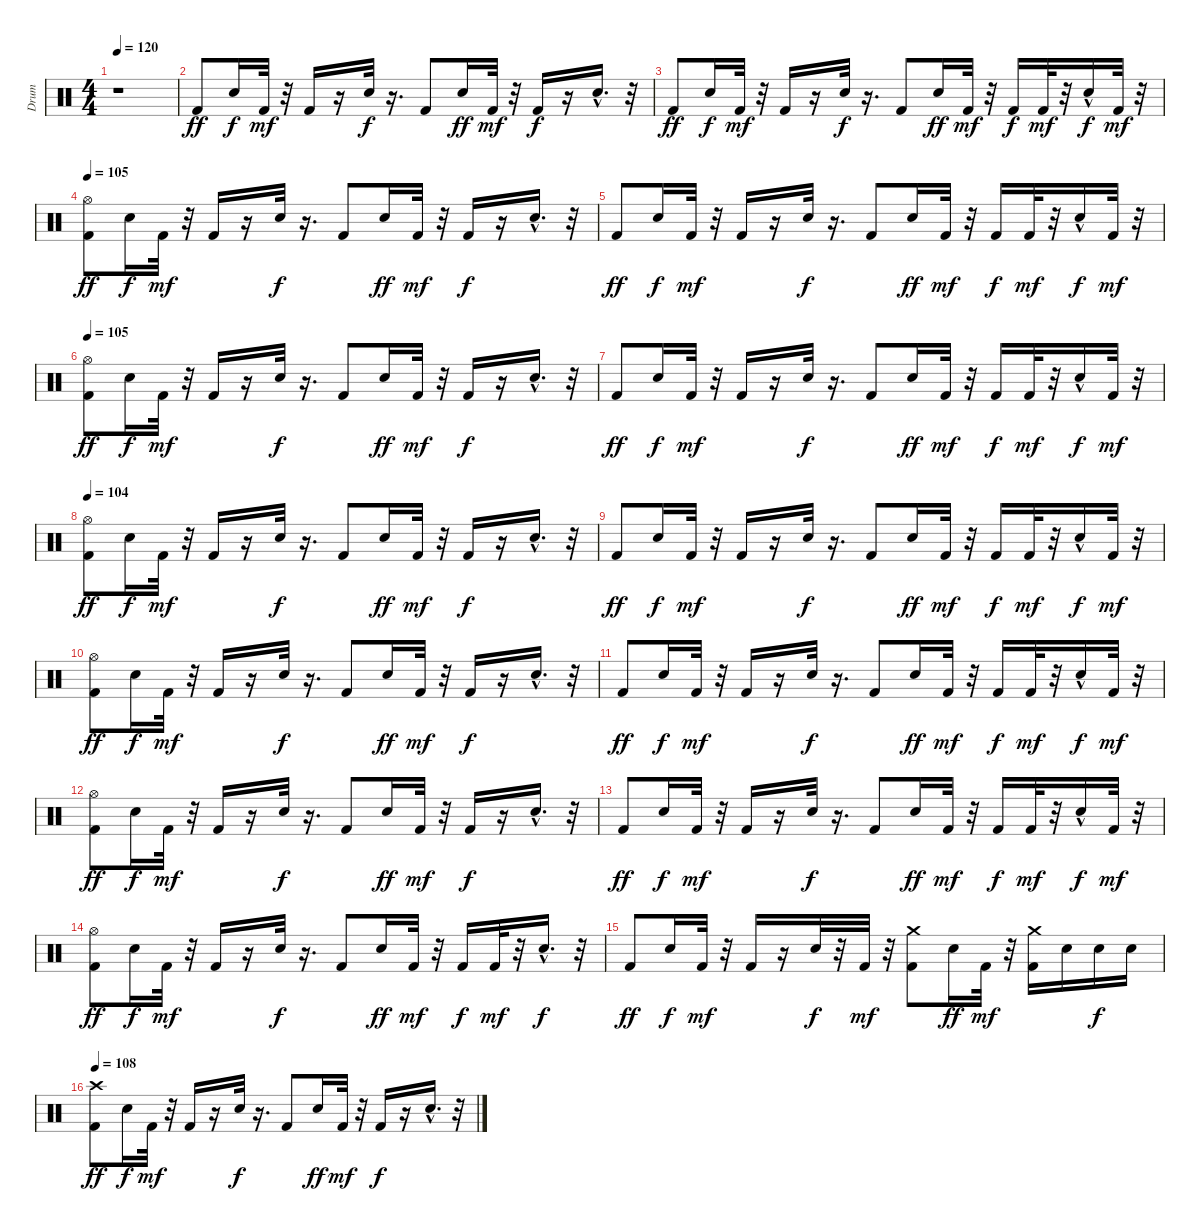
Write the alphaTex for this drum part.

\track ("Drum" "Drum") {instrument percussion}
\staff {score}
\articulation defaults
\ts (4 4)
\tempo 120
\clef neutral
\ks c
r.1{dy ff} |
"Kick (hit) 2".8 "Electric Snare (hit)".16{dy f} "Kick (hit) 2".32{dy mf} r.32 "Kick (hit) 2".16 r.16 "Electric Snare (hit)".32{dy f} r.16{d} "Kick (hit) 2".8 "Electric Snare (hit)".16{dy ff} "Kick (hit) 2".32{dy mf} r.32 "Kick (hit) 2".16{dy f} r.16 "Electric Snare (hit)"{hac}.16{d} r.32 |
"Kick (hit) 2".8{dy ff} "Electric Snare (hit)".16{dy f} "Kick (hit) 2".32{dy mf} r.32 "Kick (hit) 2".16 r.16 "Electric Snare (hit)".32{dy f} r.16{d} "Kick (hit) 2".8 "Electric Snare (hit)".16{dy ff} "Kick (hit) 2".32{dy mf} r.32 "Kick (hit) 2".16{dy f} "Kick (hit) 2".32{dy mf} r.32 "Electric Snare (hit)"{hac}.16{dy f} "Kick (hit) 2".32{dy mf} r.32 |
\tempo 105
("Hi-Hat (open)" "Kick (hit) 2").8{dy ff} "Electric Snare (hit)".16{dy f} "Kick (hit) 2".32{dy mf} r.32 "Kick (hit) 2".16 r.16 "Electric Snare (hit)".32{dy f} r.16{d} "Kick (hit) 2".8 "Electric Snare (hit)".16{dy ff} "Kick (hit) 2".32{dy mf} r.32 "Kick (hit) 2".16{dy f} r.16 "Electric Snare (hit)"{hac}.16{d} r.32 |
"Kick (hit) 2".8{dy ff} "Electric Snare (hit)".16{dy f} "Kick (hit) 2".32{dy mf} r.32 "Kick (hit) 2".16 r.16 "Electric Snare (hit)".32{dy f} r.16{d} "Kick (hit) 2".8 "Electric Snare (hit)".16{dy ff} "Kick (hit) 2".32{dy mf} r.32 "Kick (hit) 2".16{dy f} "Kick (hit) 2".32{dy mf} r.32 "Electric Snare (hit)"{hac}.16{dy f} "Kick (hit) 2".32{dy mf} r.32 |
\tempo 105
("Hi-Hat (open)" "Kick (hit) 2").8{dy ff} "Electric Snare (hit)".16{dy f} "Kick (hit) 2".32{dy mf} r.32 "Kick (hit) 2".16 r.16 "Electric Snare (hit)".32{dy f} r.16{d} "Kick (hit) 2".8 "Electric Snare (hit)".16{dy ff} "Kick (hit) 2".32{dy mf} r.32 "Kick (hit) 2".16{dy f} r.16 "Electric Snare (hit)"{hac}.16{d} r.32 |
"Kick (hit) 2".8{dy ff} "Electric Snare (hit)".16{dy f} "Kick (hit) 2".32{dy mf} r.32 "Kick (hit) 2".16 r.16 "Electric Snare (hit)".32{dy f} r.16{d} "Kick (hit) 2".8 "Electric Snare (hit)".16{dy ff} "Kick (hit) 2".32{dy mf} r.32 "Kick (hit) 2".16{dy f} "Kick (hit) 2".32{dy mf} r.32 "Electric Snare (hit)"{hac}.16{dy f} "Kick (hit) 2".32{dy mf} r.32 |
\tempo 104
("Hi-Hat (open)" "Kick (hit) 2").8{dy ff} "Electric Snare (hit)".16{dy f} "Kick (hit) 2".32{dy mf} r.32 "Kick (hit) 2".16 r.16 "Electric Snare (hit)".32{dy f} r.16{d} "Kick (hit) 2".8 "Electric Snare (hit)".16{dy ff} "Kick (hit) 2".32{dy mf} r.32 "Kick (hit) 2".16{dy f} r.16 "Electric Snare (hit)"{hac}.16{d} r.32 |
"Kick (hit) 2".8{dy ff} "Electric Snare (hit)".16{dy f} "Kick (hit) 2".32{dy mf} r.32 "Kick (hit) 2".16 r.16 "Electric Snare (hit)".32{dy f} r.16{d} "Kick (hit) 2".8 "Electric Snare (hit)".16{dy ff} "Kick (hit) 2".32{dy mf} r.32 "Kick (hit) 2".16{dy f} "Kick (hit) 2".32{dy mf} r.32 "Electric Snare (hit)"{hac}.16{dy f} "Kick (hit) 2".32{dy mf} r.32 |
("Hi-Hat (open)" "Kick (hit) 2").8{dy ff} "Electric Snare (hit)".16{dy f} "Kick (hit) 2".32{dy mf} r.32 "Kick (hit) 2".16 r.16 "Electric Snare (hit)".32{dy f} r.16{d} "Kick (hit) 2".8 "Electric Snare (hit)".16{dy ff} "Kick (hit) 2".32{dy mf} r.32 "Kick (hit) 2".16{dy f} r.16 "Electric Snare (hit)"{hac}.16{d} r.32 |
"Kick (hit) 2".8{dy ff} "Electric Snare (hit)".16{dy f} "Kick (hit) 2".32{dy mf} r.32 "Kick (hit) 2".16 r.16 "Electric Snare (hit)".32{dy f} r.16{d} "Kick (hit) 2".8 "Electric Snare (hit)".16{dy ff} "Kick (hit) 2".32{dy mf} r.32 "Kick (hit) 2".16{dy f} "Kick (hit) 2".32{dy mf} r.32 "Electric Snare (hit)"{hac}.16{dy f} "Kick (hit) 2".32{dy mf} r.32 |
("Hi-Hat (open)" "Kick (hit) 2").8{dy ff} "Electric Snare (hit)".16{dy f} "Kick (hit) 2".32{dy mf} r.32 "Kick (hit) 2".16 r.16 "Electric Snare (hit)".32{dy f} r.16{d} "Kick (hit) 2".8 "Electric Snare (hit)".16{dy ff} "Kick (hit) 2".32{dy mf} r.32 "Kick (hit) 2".16{dy f} r.16 "Electric Snare (hit)"{hac}.16{d} r.32 |
"Kick (hit) 2".8{dy ff} "Electric Snare (hit)".16{dy f} "Kick (hit) 2".32{dy mf} r.32 "Kick (hit) 2".16 r.16 "Electric Snare (hit)".32{dy f} r.16{d} "Kick (hit) 2".8 "Electric Snare (hit)".16{dy ff} "Kick (hit) 2".32{dy mf} r.32 "Kick (hit) 2".16{dy f} "Kick (hit) 2".32{dy mf} r.32 "Electric Snare (hit)"{hac}.16{dy f} "Kick (hit) 2".32{dy mf} r.32 |
("Hi-Hat (open)" "Kick (hit) 2").8{dy ff} "Electric Snare (hit)".16{dy f} "Kick (hit) 2".32{dy mf} r.32 "Kick (hit) 2".16 r.16 "Electric Snare (hit)".32{dy f} r.16{d} "Kick (hit) 2".8 "Electric Snare (hit)".16{dy ff} "Kick (hit) 2".32{dy mf} r.32 "Kick (hit) 2".16{dy f} "Kick (hit) 2".32{dy mf} r.32 "Electric Snare (hit)"{hac}.16{d dy f} r.32 |
"Kick (hit) 2".8{dy ff} "Electric Snare (hit)".16{dy f} "Kick (hit) 2".32{dy mf} r.32 "Kick (hit) 2".16 r.16 "Electric Snare (hit)".32{dy f} r.32 "Kick (hit) 2".32{dy mf} r.32 ("Crash medium (hit)" "Kick (hit) 2").8 "Electric Snare (hit)".16{dy ff} "Kick (hit) 2".32{dy mf} r.32 ("Crash medium (hit)" "Kick (hit) 2").16 "Electric Snare (hit)".16 "Electric Snare (hit)".16{dy f} "Electric Snare (hit)".16 |
\tempo 108
("Crash high (hit)" "Kick (hit) 2").8{dy ff} "Electric Snare (hit)".16{dy f} "Kick (hit) 2".32{dy mf} r.32 "Kick (hit) 2".16 r.16 "Electric Snare (hit)".32{dy f} r.16{d} "Kick (hit) 2".8 "Electric Snare (hit)".16{dy ff} "Kick (hit) 2".32{dy mf} r.32 "Kick (hit) 2".16{dy f} r.16 "Electric Snare (hit)"{hac}.16{d} r.32
